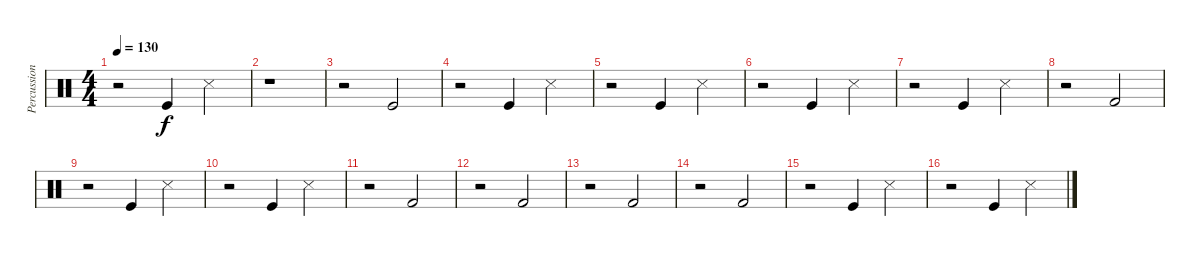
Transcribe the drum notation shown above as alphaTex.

\track ("Percussion" "Percussion") {instrument percussion}
\staff {score}
\articulation defaults
\ts (4 4)
\tempo 130
\clef neutral
\ks c
r.2{dy fff} "Kick (hit)".4{dy f} "Snare (side stick) 3".4 |
r.1 |
r.2 "Kick (hit)".2 |
r.2 "Kick (hit)".4 "Snare (side stick) 3".4 |
r.2 "Kick (hit)".4 "Snare (side stick) 3".4 |
r.2 "Kick (hit)".4 "Snare (side stick) 3".4 |
r.2 "Kick (hit)".4 "Snare (side stick) 3".4 |
r.2 "Kick (hit) 2".2 |
r.2 "Kick (hit)".4 "Snare (side stick) 3".4 |
r.2 "Kick (hit)".4 "Snare (side stick) 3".4 |
r.2 "Kick (hit) 2".2 |
r.2 "Kick (hit) 2".2 |
r.2 "Kick (hit) 2".2 |
r.2 "Kick (hit) 2".2 |
r.2 "Kick (hit)".4 "Snare (side stick) 3".4 |
r.2 "Kick (hit)".4 "Snare (side stick) 3".4
